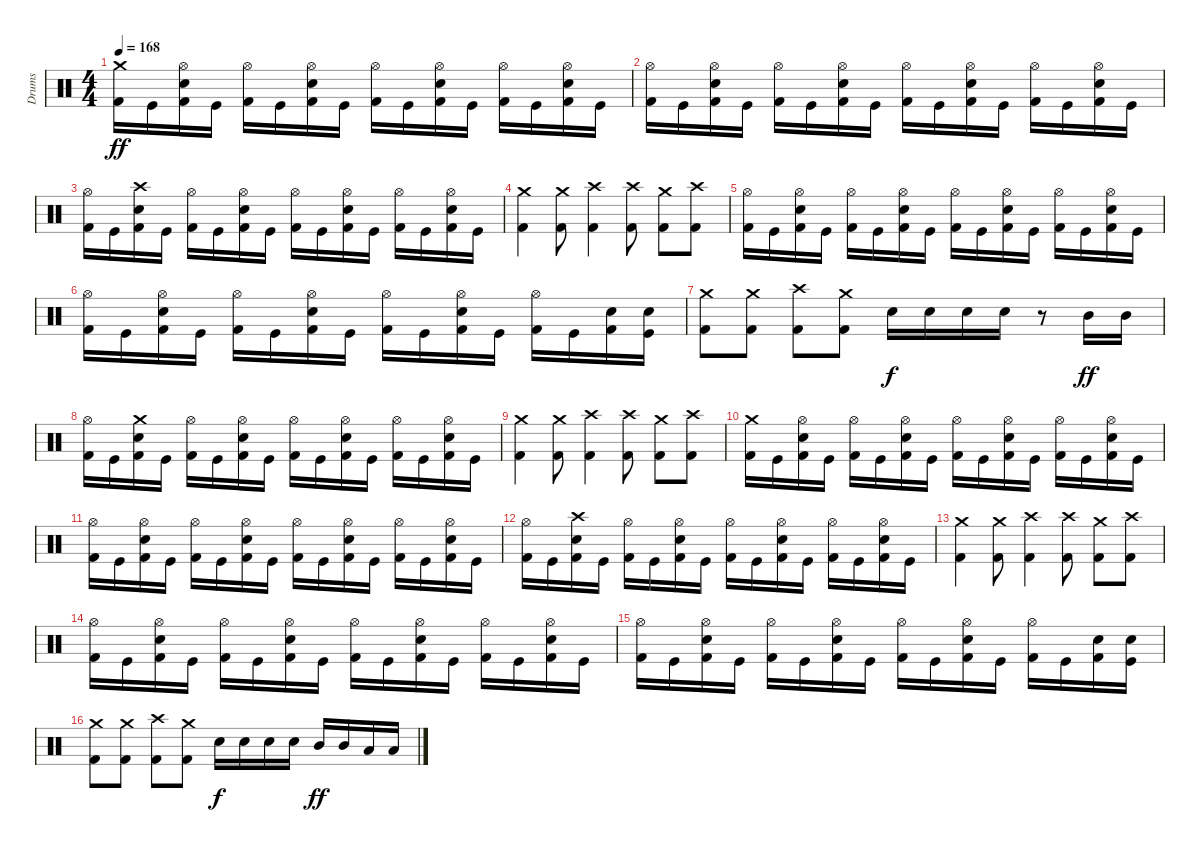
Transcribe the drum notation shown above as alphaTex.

\track ("Drums" "Drums") {instrument percussion}
\staff {score}
\articulation defaults
\ts (4 4)
\tempo 168
\clef neutral
\ks c
("Crash medium (hit)" "Kick (hit) 2").16{dy ff} "Kick (hit)".16 ("Hi-Hat (open)" "Electric Snare (hit)" "Kick (hit) 2").16 "Kick (hit)".16 ("Hi-Hat (open)" "Kick (hit) 2").16 "Kick (hit)".16 ("Hi-Hat (open)" "Electric Snare (hit)" "Kick (hit) 2").16 "Kick (hit)".16 ("Hi-Hat (open)" "Kick (hit) 2").16 "Kick (hit)".16 ("Hi-Hat (open)" "Electric Snare (hit)" "Kick (hit) 2").16 "Kick (hit)".16 ("Hi-Hat (open)" "Kick (hit) 2").16 "Kick (hit)".16 ("Hi-Hat (open)" "Electric Snare (hit)" "Kick (hit) 2").16 "Kick (hit)".16 |
("Hi-Hat (open)" "Kick (hit) 2").16 "Kick (hit)".16 ("Hi-Hat (open)" "Electric Snare (hit)" "Kick (hit) 2").16 "Kick (hit)".16 ("Hi-Hat (open)" "Kick (hit) 2").16 "Kick (hit)".16 ("Hi-Hat (open)" "Electric Snare (hit)" "Kick (hit) 2").16 "Kick (hit)".16 ("Hi-Hat (open)" "Kick (hit) 2").16 "Kick (hit)".16 ("Hi-Hat (open)" "Electric Snare (hit)" "Kick (hit) 2").16 "Kick (hit)".16 ("Hi-Hat (open)" "Kick (hit) 2").16 "Kick (hit)".16 ("Hi-Hat (open)" "Electric Snare (hit)" "Kick (hit) 2").16 "Kick (hit)".16 |
("Hi-Hat (open)" "Kick (hit) 2").16 "Kick (hit)".16 ("Crash high (hit)" "Electric Snare (hit)" "Kick (hit) 2").16 "Kick (hit)".16 ("Hi-Hat (open)" "Kick (hit) 2").16 "Kick (hit)".16 ("Hi-Hat (open)" "Electric Snare (hit)" "Kick (hit) 2").16 "Kick (hit)".16 ("Hi-Hat (open)" "Kick (hit) 2").16 "Kick (hit)".16 ("Hi-Hat (open)" "Electric Snare (hit)" "Kick (hit) 2").16 "Kick (hit)".16 ("Hi-Hat (open)" "Kick (hit) 2").16 "Kick (hit)".16 ("Hi-Hat (open)" "Electric Snare (hit)" "Kick (hit) 2").16 "Kick (hit)".16 |
("Crash medium (hit)" "Kick (hit) 2").4 ("Crash medium (hit)" "Kick (hit) 2").8 ("Crash high (hit)" "Kick (hit) 2").4 ("Crash high (hit)" "Kick (hit) 2").8 ("Crash medium (hit)" "Kick (hit) 2").8 ("Crash high (hit)" "Kick (hit) 2").8 |
("Hi-Hat (open)" "Kick (hit) 2").16 "Kick (hit)".16 ("Hi-Hat (open)" "Electric Snare (hit)" "Kick (hit) 2").16 "Kick (hit)".16 ("Hi-Hat (open)" "Kick (hit) 2").16 "Kick (hit)".16 ("Hi-Hat (open)" "Electric Snare (hit)" "Kick (hit) 2").16 "Kick (hit)".16 ("Hi-Hat (open)" "Kick (hit) 2").16 "Kick (hit)".16 ("Hi-Hat (open)" "Electric Snare (hit)" "Kick (hit) 2").16 "Kick (hit)".16 ("Hi-Hat (open)" "Kick (hit) 2").16 "Kick (hit)".16 ("Hi-Hat (open)" "Electric Snare (hit)" "Kick (hit) 2").16 "Kick (hit)".16 |
("Hi-Hat (open)" "Kick (hit) 2").16 "Kick (hit)".16 ("Hi-Hat (open)" "Electric Snare (hit)" "Kick (hit) 2").16 "Kick (hit)".16 ("Hi-Hat (open)" "Kick (hit) 2").16 "Kick (hit)".16 ("Hi-Hat (open)" "Electric Snare (hit)" "Kick (hit) 2").16 "Kick (hit)".16 ("Hi-Hat (open)" "Kick (hit) 2").16 "Kick (hit)".16 ("Hi-Hat (open)" "Electric Snare (hit)" "Kick (hit) 2").16 "Kick (hit)".16 ("Hi-Hat (open)" "Kick (hit) 2").16 "Kick (hit)".16 ("Electric Snare (hit)" "Kick (hit) 2").16 ("Electric Snare (hit)" "Kick (hit)").16 |
("Crash medium (hit)" "Kick (hit) 2").8 ("Crash medium (hit)" "Kick (hit) 2").8 ("Crash high (hit)" "Kick (hit) 2").8 ("Crash medium (hit)" "Kick (hit) 2").8 "Electric Snare (hit)".16{dy f} "Electric Snare (hit)".16 "Electric Snare (hit)".16 "Electric Snare (hit)".16 r.8 "Mid Tom (hit)".16{dy ff} "Mid Tom (hit)".16 |
("Hi-Hat (open)" "Kick (hit) 2").16 "Kick (hit)".16 ("Crash medium (hit)" "Electric Snare (hit)" "Kick (hit) 2").16 "Kick (hit)".16 ("Hi-Hat (open)" "Kick (hit) 2").16 "Kick (hit)".16 ("Hi-Hat (open)" "Electric Snare (hit)" "Kick (hit) 2").16 "Kick (hit)".16 ("Hi-Hat (open)" "Kick (hit) 2").16 "Kick (hit)".16 ("Hi-Hat (open)" "Electric Snare (hit)" "Kick (hit) 2").16 "Kick (hit)".16 ("Hi-Hat (open)" "Kick (hit) 2").16 "Kick (hit)".16 ("Hi-Hat (open)" "Electric Snare (hit)" "Kick (hit) 2").16 "Kick (hit)".16 |
("Crash medium (hit)" "Kick (hit) 2").4 ("Crash medium (hit)" "Kick (hit) 2").8 ("Crash high (hit)" "Kick (hit) 2").4 ("Crash high (hit)" "Kick (hit) 2").8 ("Crash medium (hit)" "Kick (hit) 2").8 ("Crash high (hit)" "Kick (hit) 2").8 |
("Crash medium (hit)" "Kick (hit) 2").16 "Kick (hit)".16 ("Hi-Hat (open)" "Electric Snare (hit)" "Kick (hit) 2").16 "Kick (hit)".16 ("Hi-Hat (open)" "Kick (hit) 2").16 "Kick (hit)".16 ("Hi-Hat (open)" "Electric Snare (hit)" "Kick (hit) 2").16 "Kick (hit)".16 ("Hi-Hat (open)" "Kick (hit) 2").16 "Kick (hit)".16 ("Hi-Hat (open)" "Electric Snare (hit)" "Kick (hit) 2").16 "Kick (hit)".16 ("Hi-Hat (open)" "Kick (hit) 2").16 "Kick (hit)".16 ("Hi-Hat (open)" "Electric Snare (hit)" "Kick (hit) 2").16 "Kick (hit)".16 |
("Hi-Hat (open)" "Kick (hit) 2").16 "Kick (hit)".16 ("Hi-Hat (open)" "Electric Snare (hit)" "Kick (hit) 2").16 "Kick (hit)".16 ("Hi-Hat (open)" "Kick (hit) 2").16 "Kick (hit)".16 ("Hi-Hat (open)" "Electric Snare (hit)" "Kick (hit) 2").16 "Kick (hit)".16 ("Hi-Hat (open)" "Kick (hit) 2").16 "Kick (hit)".16 ("Hi-Hat (open)" "Electric Snare (hit)" "Kick (hit) 2").16 "Kick (hit)".16 ("Hi-Hat (open)" "Kick (hit) 2").16 "Kick (hit)".16 ("Hi-Hat (open)" "Electric Snare (hit)" "Kick (hit) 2").16 "Kick (hit)".16 |
("Hi-Hat (open)" "Kick (hit) 2").16 "Kick (hit)".16 ("Crash high (hit)" "Electric Snare (hit)" "Kick (hit) 2").16 "Kick (hit)".16 ("Hi-Hat (open)" "Kick (hit) 2").16 "Kick (hit)".16 ("Hi-Hat (open)" "Electric Snare (hit)" "Kick (hit) 2").16 "Kick (hit)".16 ("Hi-Hat (open)" "Kick (hit) 2").16 "Kick (hit)".16 ("Hi-Hat (open)" "Electric Snare (hit)" "Kick (hit) 2").16 "Kick (hit)".16 ("Hi-Hat (open)" "Kick (hit) 2").16 "Kick (hit)".16 ("Hi-Hat (open)" "Electric Snare (hit)" "Kick (hit) 2").16 "Kick (hit)".16 |
("Crash medium (hit)" "Kick (hit) 2").4 ("Crash medium (hit)" "Kick (hit) 2").8 ("Crash high (hit)" "Kick (hit) 2").4 ("Crash high (hit)" "Kick (hit) 2").8 ("Crash medium (hit)" "Kick (hit) 2").8 ("Crash high (hit)" "Kick (hit) 2").8 |
("Hi-Hat (open)" "Kick (hit) 2").16 "Kick (hit)".16 ("Hi-Hat (open)" "Electric Snare (hit)" "Kick (hit) 2").16 "Kick (hit)".16 ("Hi-Hat (open)" "Kick (hit) 2").16 "Kick (hit)".16 ("Hi-Hat (open)" "Electric Snare (hit)" "Kick (hit) 2").16 "Kick (hit)".16 ("Hi-Hat (open)" "Kick (hit) 2").16 "Kick (hit)".16 ("Hi-Hat (open)" "Electric Snare (hit)" "Kick (hit) 2").16 "Kick (hit)".16 ("Hi-Hat (open)" "Kick (hit) 2").16 "Kick (hit)".16 ("Hi-Hat (open)" "Electric Snare (hit)" "Kick (hit) 2").16 "Kick (hit)".16 |
("Hi-Hat (open)" "Kick (hit) 2").16 "Kick (hit)".16 ("Hi-Hat (open)" "Electric Snare (hit)" "Kick (hit) 2").16 "Kick (hit)".16 ("Hi-Hat (open)" "Kick (hit) 2").16 "Kick (hit)".16 ("Hi-Hat (open)" "Electric Snare (hit)" "Kick (hit) 2").16 "Kick (hit)".16 ("Hi-Hat (open)" "Kick (hit) 2").16 "Kick (hit)".16 ("Hi-Hat (open)" "Electric Snare (hit)" "Kick (hit) 2").16 "Kick (hit)".16 ("Hi-Hat (open)" "Kick (hit) 2").16 "Kick (hit)".16 ("Electric Snare (hit)" "Kick (hit) 2").16 ("Electric Snare (hit)" "Kick (hit)").16 |
("Crash medium (hit)" "Kick (hit) 2").8 ("Crash medium (hit)" "Kick (hit) 2").8 ("Crash high (hit)" "Kick (hit) 2").8 ("Crash medium (hit)" "Kick (hit) 2").8 "Electric Snare (hit)".16{dy f} "Electric Snare (hit)".16 "Electric Snare (hit)".16 "Electric Snare (hit)".16 "Mid Tom (hit)".16{dy ff} "Mid Tom (hit)".16 "Low Tom (hit)".16 "Low Tom (hit)".16
